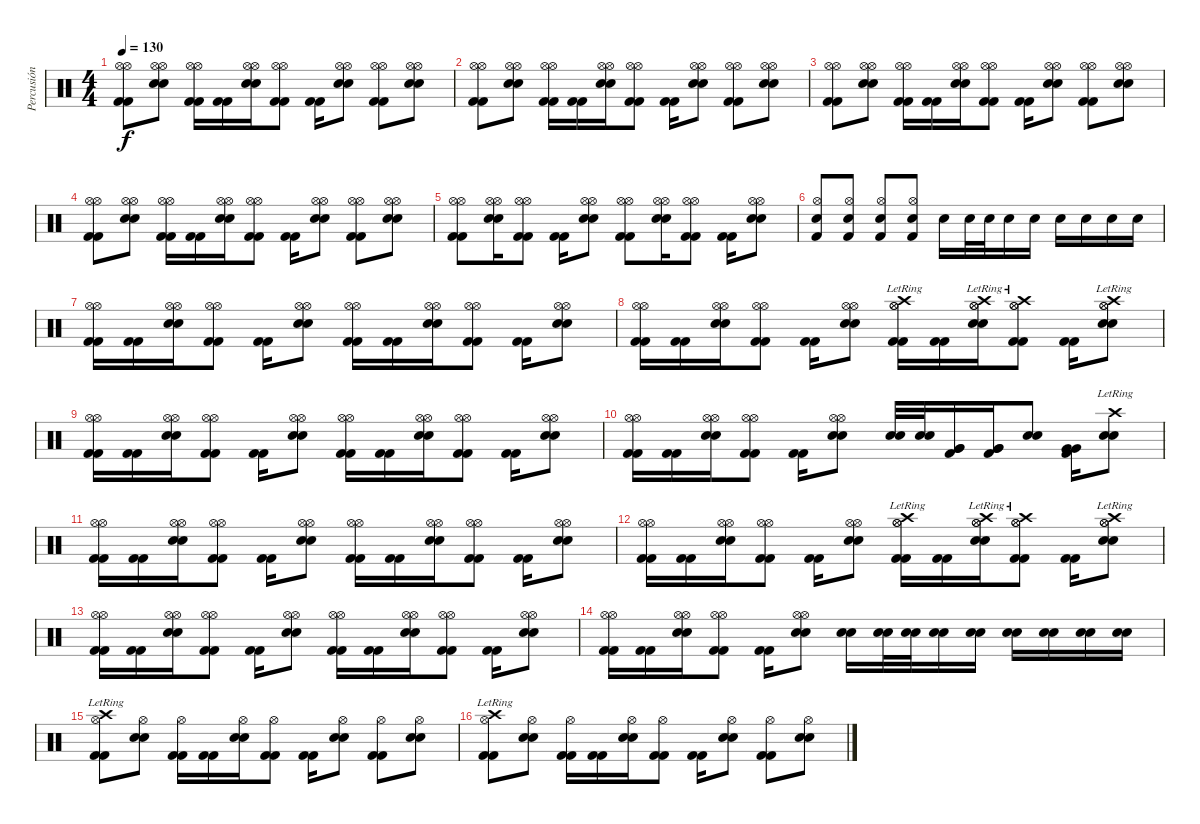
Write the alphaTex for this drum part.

\track ("Percusión" "Percusión") {instrument percussion}
\staff {score}
\articulation defaults
\ts (4 4)
\tempo 130
\clef neutral
\ks c
("Kick (hit) 2" "Kick (hit) 2" "Hi-Hat (open)" "Hi-Hat (open)").8{dy f} ("Snare (hit) 2" "Snare (hit) 2" "Hi-Hat (open)" "Hi-Hat (open)").8 ("Kick (hit) 2" "Kick (hit) 2" "Hi-Hat (open)" "Hi-Hat (open)").16 ("Kick (hit) 2" "Kick (hit) 2").16 ("Snare (hit) 2" "Snare (hit) 2" "Hi-Hat (open)" "Hi-Hat (open)").16 ("Kick (hit) 2" "Kick (hit) 2" "Hi-Hat (open)" "Hi-Hat (open)").8 ("Kick (hit) 2" "Kick (hit) 2").16 ("Snare (hit) 2" "Snare (hit) 2" "Hi-Hat (open)" "Hi-Hat (open)").8 ("Kick (hit) 2" "Kick (hit) 2" "Hi-Hat (open)" "Hi-Hat (open)").8 ("Snare (hit) 2" "Snare (hit) 2" "Hi-Hat (open)" "Hi-Hat (open)").8 |
("Kick (hit) 2" "Kick (hit) 2" "Hi-Hat (open)" "Hi-Hat (open)").8 ("Snare (hit) 2" "Snare (hit) 2" "Hi-Hat (open)" "Hi-Hat (open)").8 ("Kick (hit) 2" "Kick (hit) 2" "Hi-Hat (open)" "Hi-Hat (open)").16 ("Kick (hit) 2" "Kick (hit) 2").16 ("Snare (hit) 2" "Snare (hit) 2" "Hi-Hat (open)" "Hi-Hat (open)").16 ("Kick (hit) 2" "Kick (hit) 2" "Hi-Hat (open)" "Hi-Hat (open)").8 ("Kick (hit) 2" "Kick (hit) 2").16 ("Snare (hit) 2" "Snare (hit) 2" "Hi-Hat (open)" "Hi-Hat (open)").8 ("Kick (hit) 2" "Kick (hit) 2" "Hi-Hat (open)" "Hi-Hat (open)").8 ("Snare (hit) 2" "Snare (hit) 2" "Hi-Hat (open)" "Hi-Hat (open)").8 |
("Kick (hit) 2" "Kick (hit) 2" "Hi-Hat (open)" "Hi-Hat (open)").8 ("Snare (hit) 2" "Snare (hit) 2" "Hi-Hat (open)" "Hi-Hat (open)").8 ("Kick (hit) 2" "Kick (hit) 2" "Hi-Hat (open)" "Hi-Hat (open)").16 ("Kick (hit) 2" "Kick (hit) 2").16 ("Snare (hit) 2" "Snare (hit) 2" "Hi-Hat (open)" "Hi-Hat (open)").16 ("Kick (hit) 2" "Kick (hit) 2" "Hi-Hat (open)" "Hi-Hat (open)").8 ("Kick (hit) 2" "Kick (hit) 2").16 ("Snare (hit) 2" "Snare (hit) 2" "Hi-Hat (open)" "Hi-Hat (open)").8 ("Kick (hit) 2" "Kick (hit) 2" "Hi-Hat (open)" "Hi-Hat (open)").8 ("Snare (hit) 2" "Snare (hit) 2" "Hi-Hat (open)" "Hi-Hat (open)").8 |
("Kick (hit) 2" "Kick (hit) 2" "Hi-Hat (open)" "Hi-Hat (open)").8 ("Snare (hit) 2" "Snare (hit) 2" "Hi-Hat (open)" "Hi-Hat (open)").8 ("Kick (hit) 2" "Kick (hit) 2" "Hi-Hat (open)" "Hi-Hat (open)").16 ("Kick (hit) 2" "Kick (hit) 2").16 ("Snare (hit) 2" "Snare (hit) 2" "Hi-Hat (open)" "Hi-Hat (open)").16 ("Kick (hit) 2" "Kick (hit) 2" "Hi-Hat (open)" "Hi-Hat (open)").8 ("Kick (hit) 2" "Kick (hit) 2").16 ("Snare (hit) 2" "Snare (hit) 2" "Hi-Hat (open)" "Hi-Hat (open)").8 ("Kick (hit) 2" "Kick (hit) 2" "Hi-Hat (open)" "Hi-Hat (open)").8 ("Snare (hit) 2" "Snare (hit) 2" "Hi-Hat (open)" "Hi-Hat (open)").8 |
("Kick (hit) 2" "Kick (hit) 2" "Hi-Hat (open)" "Hi-Hat (open)").8 ("Snare (hit) 2" "Snare (hit) 2" "Hi-Hat (open)" "Hi-Hat (open)").16 ("Kick (hit) 2" "Kick (hit) 2" "Hi-Hat (open)" "Hi-Hat (open)").8 ("Kick (hit) 2" "Kick (hit) 2").16 ("Snare (hit) 2" "Snare (hit) 2" "Hi-Hat (open)" "Hi-Hat (open)").8 ("Kick (hit) 2" "Kick (hit) 2" "Hi-Hat (open)" "Hi-Hat (open)").8 ("Snare (hit) 2" "Snare (hit) 2" "Hi-Hat (open)" "Hi-Hat (open)").16 ("Kick (hit) 2" "Kick (hit) 2" "Hi-Hat (open)" "Hi-Hat (open)").8 ("Kick (hit) 2" "Kick (hit) 2").16 ("Snare (hit) 2" "Snare (hit) 2" "Hi-Hat (open)" "Hi-Hat (open)").8 |
("Hi-Hat (open)" "Snare (hit) 2" "Kick (hit) 2").8 ("Hi-Hat (open)" "Snare (hit) 2" "Kick (hit) 2").8 ("Hi-Hat (open)" "Snare (hit) 2" "Kick (hit) 2").8 ("Hi-Hat (open)" "Snare (hit) 2" "Kick (hit) 2").8 "Snare (hit) 2".16 "Snare (hit) 2".32 "Snare (hit) 2".32 "Snare (hit) 2".16 "Snare (hit) 2".16 "Snare (hit) 2".16 "Snare (hit) 2".16 "Snare (hit) 2".16 "Snare (hit) 2".16 |
("Kick (hit) 2" "Kick (hit) 2" "Hi-Hat (open)" "Hi-Hat (open)").16 ("Kick (hit) 2" "Kick (hit) 2").16 ("Snare (hit) 2" "Snare (hit) 2" "Hi-Hat (open)" "Hi-Hat (open)").16 ("Kick (hit) 2" "Kick (hit) 2" "Hi-Hat (open)" "Hi-Hat (open)").8 ("Kick (hit) 2" "Kick (hit) 2").16 ("Snare (hit) 2" "Snare (hit) 2" "Hi-Hat (open)" "Hi-Hat (open)").8 ("Kick (hit) 2" "Kick (hit) 2" "Hi-Hat (open)" "Hi-Hat (open)").16 ("Kick (hit) 2" "Kick (hit) 2").16 ("Snare (hit) 2" "Snare (hit) 2" "Hi-Hat (open)" "Hi-Hat (open)").16 ("Kick (hit) 2" "Kick (hit) 2" "Hi-Hat (open)" "Hi-Hat (open)").8 ("Kick (hit) 2" "Kick (hit) 2").16 ("Snare (hit) 2" "Snare (hit) 2" "Hi-Hat (open)" "Hi-Hat (open)").8 |
("Kick (hit) 2" "Kick (hit) 2" "Hi-Hat (open)" "Hi-Hat (open)").16 ("Kick (hit) 2" "Kick (hit) 2").16 ("Snare (hit) 2" "Snare (hit) 2" "Hi-Hat (open)" "Hi-Hat (open)").16 ("Kick (hit) 2" "Kick (hit) 2" "Hi-Hat (open)" "Hi-Hat (open)").8 ("Kick (hit) 2" "Kick (hit) 2").16 ("Snare (hit) 2" "Snare (hit) 2" "Hi-Hat (open)" "Hi-Hat (open)").8 ("Kick (hit) 2" "Kick (hit) 2" "Hi-Hat (open)" "Hi-Hat (open)" "Crash high (hit)"{lr}).16 ("Kick (hit) 2" "Kick (hit) 2").16 ("Snare (hit) 2" "Snare (hit) 2" "Hi-Hat (open)" "Hi-Hat (open)" "Crash high (hit)"{lr}).16 ("Kick (hit) 2" "Kick (hit) 2" "Hi-Hat (open)" "Hi-Hat (open)" "Crash high (hit)"{lr}).8 ("Kick (hit) 2" "Kick (hit) 2").16 ("Snare (hit) 2" "Snare (hit) 2" "Hi-Hat (open)" "Hi-Hat (open)" "Crash high (hit)"{lr}).8 |
("Kick (hit) 2" "Kick (hit) 2" "Hi-Hat (open)" "Hi-Hat (open)").16 ("Kick (hit) 2" "Kick (hit) 2").16 ("Snare (hit) 2" "Snare (hit) 2" "Hi-Hat (open)" "Hi-Hat (open)").16 ("Kick (hit) 2" "Kick (hit) 2" "Hi-Hat (open)" "Hi-Hat (open)").8 ("Kick (hit) 2" "Kick (hit) 2").16 ("Snare (hit) 2" "Snare (hit) 2" "Hi-Hat (open)" "Hi-Hat (open)").8 ("Kick (hit) 2" "Kick (hit) 2" "Hi-Hat (open)" "Hi-Hat (open)").16 ("Kick (hit) 2" "Kick (hit) 2").16 ("Snare (hit) 2" "Snare (hit) 2" "Hi-Hat (open)" "Hi-Hat (open)").16 ("Kick (hit) 2" "Kick (hit) 2" "Hi-Hat (open)" "Hi-Hat (open)").8 ("Kick (hit) 2" "Kick (hit) 2").16 ("Snare (hit) 2" "Snare (hit) 2" "Hi-Hat (open)" "Hi-Hat (open)").8 |
("Kick (hit) 2" "Kick (hit) 2" "Hi-Hat (open)" "Hi-Hat (open)").16 ("Kick (hit) 2" "Kick (hit) 2").16 ("Snare (hit) 2" "Snare (hit) 2" "Hi-Hat (open)" "Hi-Hat (open)").16 ("Kick (hit) 2" "Kick (hit) 2" "Hi-Hat (open)" "Hi-Hat (open)").8 ("Kick (hit) 2" "Kick (hit) 2").16 ("Snare (hit) 2" "Snare (hit) 2" "Hi-Hat (open)" "Hi-Hat (open)").8 ("Snare (hit) 2" "Snare (hit) 2").32 ("Snare (hit) 2" "Snare (hit) 2").32 ("Very Low Tom (hit)" "Very Low Tom (hit)" "Kick (hit) 2").16 ("Very Low Tom (hit)" "Very Low Tom (hit)" "Kick (hit) 2").16 ("Snare (hit) 2" "Snare (hit) 2").8 ("Very Low Tom (hit)" "Very Low Tom (hit)" "Kick (hit) 2").16 ("Snare (hit) 2" "Snare (hit) 2" "Crash high (hit)"{lr}).8 |
("Kick (hit) 2" "Kick (hit) 2" "Hi-Hat (open)" "Hi-Hat (open)").16 ("Kick (hit) 2" "Kick (hit) 2").16 ("Snare (hit) 2" "Snare (hit) 2" "Hi-Hat (open)" "Hi-Hat (open)").16 ("Kick (hit) 2" "Kick (hit) 2" "Hi-Hat (open)" "Hi-Hat (open)").8 ("Kick (hit) 2" "Kick (hit) 2").16 ("Snare (hit) 2" "Snare (hit) 2" "Hi-Hat (open)" "Hi-Hat (open)").8 ("Kick (hit) 2" "Kick (hit) 2" "Hi-Hat (open)" "Hi-Hat (open)").16 ("Kick (hit) 2" "Kick (hit) 2").16 ("Snare (hit) 2" "Snare (hit) 2" "Hi-Hat (open)" "Hi-Hat (open)").16 ("Kick (hit) 2" "Kick (hit) 2" "Hi-Hat (open)" "Hi-Hat (open)").8 ("Kick (hit) 2" "Kick (hit) 2").16 ("Snare (hit) 2" "Snare (hit) 2" "Hi-Hat (open)" "Hi-Hat (open)").8 |
("Kick (hit) 2" "Kick (hit) 2" "Hi-Hat (open)" "Hi-Hat (open)").16 ("Kick (hit) 2" "Kick (hit) 2").16 ("Snare (hit) 2" "Snare (hit) 2" "Hi-Hat (open)" "Hi-Hat (open)").16 ("Kick (hit) 2" "Kick (hit) 2" "Hi-Hat (open)" "Hi-Hat (open)").8 ("Kick (hit) 2" "Kick (hit) 2").16 ("Snare (hit) 2" "Snare (hit) 2" "Hi-Hat (open)" "Hi-Hat (open)").8 ("Kick (hit) 2" "Kick (hit) 2" "Hi-Hat (open)" "Hi-Hat (open)" "Crash high (hit)"{lr}).16 ("Kick (hit) 2" "Kick (hit) 2").16 ("Snare (hit) 2" "Snare (hit) 2" "Hi-Hat (open)" "Hi-Hat (open)" "Crash high (hit)"{lr}).16 ("Kick (hit) 2" "Kick (hit) 2" "Hi-Hat (open)" "Hi-Hat (open)" "Crash high (hit)"{lr}).8 ("Kick (hit) 2" "Kick (hit) 2").16 ("Snare (hit) 2" "Snare (hit) 2" "Hi-Hat (open)" "Hi-Hat (open)" "Crash high (hit)"{lr}).8 |
("Kick (hit) 2" "Kick (hit) 2" "Hi-Hat (open)" "Hi-Hat (open)").16 ("Kick (hit) 2" "Kick (hit) 2").16 ("Snare (hit) 2" "Snare (hit) 2" "Hi-Hat (open)" "Hi-Hat (open)").16 ("Kick (hit) 2" "Kick (hit) 2" "Hi-Hat (open)" "Hi-Hat (open)").8 ("Kick (hit) 2" "Kick (hit) 2").16 ("Snare (hit) 2" "Snare (hit) 2" "Hi-Hat (open)" "Hi-Hat (open)").8 ("Kick (hit) 2" "Kick (hit) 2" "Hi-Hat (open)" "Hi-Hat (open)").16 ("Kick (hit) 2" "Kick (hit) 2").16 ("Snare (hit) 2" "Snare (hit) 2" "Hi-Hat (open)" "Hi-Hat (open)").16 ("Kick (hit) 2" "Kick (hit) 2" "Hi-Hat (open)" "Hi-Hat (open)").8 ("Kick (hit) 2" "Kick (hit) 2").16 ("Snare (hit) 2" "Snare (hit) 2" "Hi-Hat (open)" "Hi-Hat (open)").8 |
("Kick (hit) 2" "Kick (hit) 2" "Hi-Hat (open)" "Hi-Hat (open)").16 ("Kick (hit) 2" "Kick (hit) 2").16 ("Snare (hit) 2" "Snare (hit) 2" "Hi-Hat (open)" "Hi-Hat (open)").16 ("Kick (hit) 2" "Kick (hit) 2" "Hi-Hat (open)" "Hi-Hat (open)").8 ("Kick (hit) 2" "Kick (hit) 2").16 ("Snare (hit) 2" "Snare (hit) 2" "Hi-Hat (open)" "Hi-Hat (open)").8 ("Snare (hit) 2" "Snare (hit) 2").16 ("Snare (hit) 2" "Snare (hit) 2").32 ("Snare (hit) 2" "Snare (hit) 2").32 ("Snare (hit) 2" "Snare (hit) 2").16 ("Snare (hit) 2" "Snare (hit) 2").16 ("Snare (hit) 2" "Snare (hit) 2").16 ("Snare (hit) 2" "Snare (hit) 2").16 ("Snare (hit) 2" "Snare (hit) 2").16 ("Snare (hit) 2" "Snare (hit) 2").16 |
("Kick (hit) 2" "Kick (hit) 2" "Hi-Hat (open)" "Crash high (hit)"{lr}).8 ("Snare (hit) 2" "Snare (hit) 2" "Hi-Hat (open)").8 ("Kick (hit) 2" "Kick (hit) 2" "Hi-Hat (open)").16 ("Kick (hit) 2" "Kick (hit) 2").16 ("Snare (hit) 2" "Snare (hit) 2" "Hi-Hat (open)").16 ("Kick (hit) 2" "Kick (hit) 2" "Hi-Hat (open)").8 ("Kick (hit) 2" "Kick (hit) 2").16 ("Snare (hit) 2" "Snare (hit) 2" "Hi-Hat (open)").8 ("Kick (hit) 2" "Kick (hit) 2" "Hi-Hat (open)").8 ("Snare (hit) 2" "Snare (hit) 2" "Hi-Hat (open)").8 |
("Kick (hit) 2" "Kick (hit) 2" "Hi-Hat (open)" "Crash high (hit)"{lr}).8 ("Snare (hit) 2" "Snare (hit) 2" "Hi-Hat (open)").8 ("Kick (hit) 2" "Kick (hit) 2" "Hi-Hat (open)").16 ("Kick (hit) 2" "Kick (hit) 2").16 ("Snare (hit) 2" "Snare (hit) 2" "Hi-Hat (open)").16 ("Kick (hit) 2" "Kick (hit) 2" "Hi-Hat (open)").8 ("Kick (hit) 2" "Kick (hit) 2").16 ("Snare (hit) 2" "Snare (hit) 2" "Hi-Hat (open)").8 ("Kick (hit) 2" "Kick (hit) 2" "Hi-Hat (open)").8 ("Snare (hit) 2" "Snare (hit) 2" "Hi-Hat (open)").8
